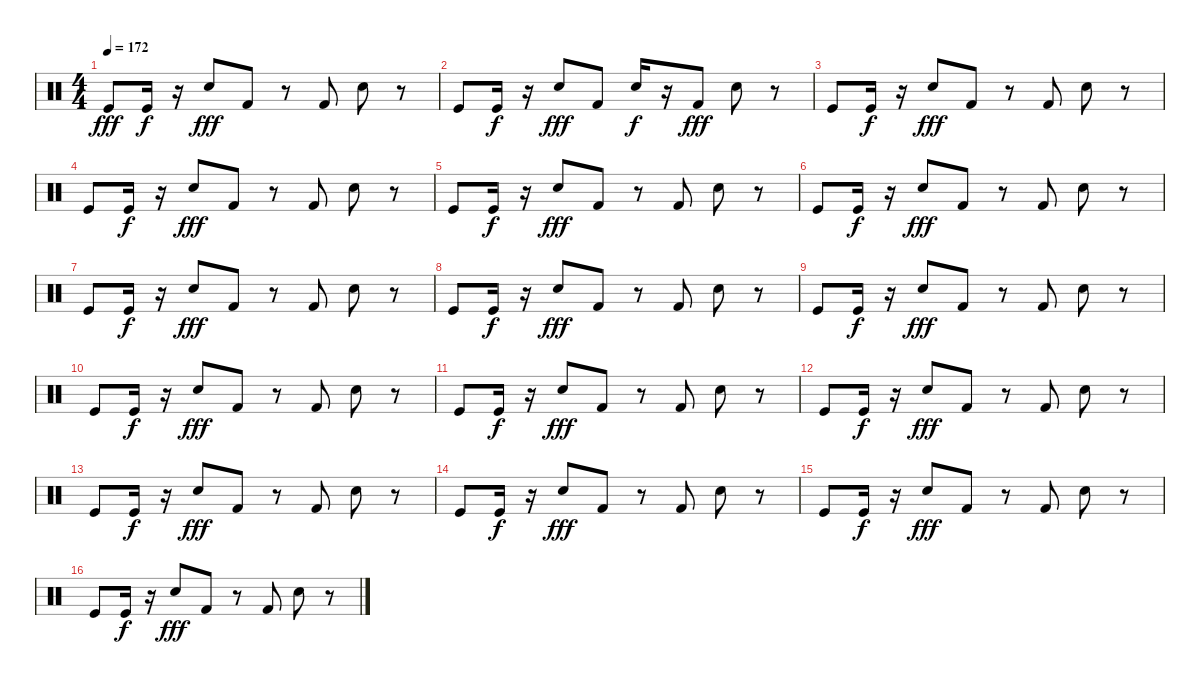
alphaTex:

\track "" {instrument percussion}
\staff {score}
\articulation defaults
\ts (4 4)
\tempo 172
\clef neutral
\ks c "Kick (hit)".8{dy fff} "Kick (hit)".16{dy f}
r.16 "Snare (hit) 2".8{dy fff} "Kick (hit) 2".8 r.8 "Kick (hit) 2".8 "Snare (hit) 2".8 r.8 |
"Kick (hit)".8 "Kick (hit)".16{dy f} r.16 "Snare (hit) 2".8{dy fff} "Kick (hit) 2".8 "Snare (hit) 2".16{dy f} r.16 "Kick (hit) 2".8{dy fff} "Snare (hit) 2".8 r.8 |
"Kick (hit)".8 "Kick (hit)".16{dy f} r.16 "Snare (hit) 2".8{dy fff} "Kick (hit) 2".8 r.8 "Kick (hit) 2".8 "Snare (hit) 2".8 r.8 |
"Kick (hit)".8 "Kick (hit)".16{dy f} r.16 "Snare (hit) 2".8{dy fff} "Kick (hit) 2".8 r.8 "Kick (hit) 2".8 "Snare (hit) 2".8 r.8 |
"Kick (hit)".8 "Kick (hit)".16{dy f} r.16 "Snare (hit) 2".8{dy fff} "Kick (hit) 2".8 r.8 "Kick (hit) 2".8 "Snare (hit) 2".8 r.8 |
"Kick (hit)".8 "Kick (hit)".16{dy f} r.16 "Snare (hit) 2".8{dy fff} "Kick (hit) 2".8 r.8 "Kick (hit) 2".8 "Snare (hit) 2".8 r.8 |
"Kick (hit)".8 "Kick (hit)".16{dy f} r.16 "Snare (hit) 2".8{dy fff} "Kick (hit) 2".8 r.8 "Kick (hit) 2".8 "Snare (hit) 2".8 r.8 |
"Kick (hit)".8 "Kick (hit)".16{dy f} r.16 "Snare (hit) 2".8{dy fff} "Kick (hit) 2".8 r.8 "Kick (hit) 2".8 "Snare (hit) 2".8 r.8 |
"Kick (hit)".8 "Kick (hit)".16{dy f} r.16 "Snare (hit) 2".8{dy fff} "Kick (hit) 2".8 r.8 "Kick (hit) 2".8 "Snare (hit) 2".8 r.8 |
"Kick (hit)".8 "Kick (hit)".16{dy f} r.16 "Snare (hit) 2".8{dy fff} "Kick (hit) 2".8 r.8 "Kick (hit) 2".8 "Snare (hit) 2".8 r.8 |
"Kick (hit)".8 "Kick (hit)".16{dy f} r.16 "Snare (hit) 2".8{dy fff} "Kick (hit) 2".8 r.8 "Kick (hit) 2".8 "Snare (hit) 2".8 r.8 |
"Kick (hit)".8 "Kick (hit)".16{dy f} r.16 "Snare (hit) 2".8{dy fff} "Kick (hit) 2".8 r.8 "Kick (hit) 2".8 "Snare (hit) 2".8 r.8 |
"Kick (hit)".8 "Kick (hit)".16{dy f} r.16 "Snare (hit) 2".8{dy fff} "Kick (hit) 2".8 r.8 "Kick (hit) 2".8 "Snare (hit) 2".8 r.8 |
"Kick (hit)".8 "Kick (hit)".16{dy f} r.16 "Snare (hit) 2".8{dy fff} "Kick (hit) 2".8 r.8 "Kick (hit) 2".8 "Snare (hit) 2".8 r.8 |
"Kick (hit)".8 "Kick (hit)".16{dy f} r.16 "Snare (hit) 2".8{dy fff} "Kick (hit) 2".8 r.8 "Kick (hit) 2".8 "Snare (hit) 2".8 r.8 |
"Kick (hit)".8 "Kick (hit)".16{dy f} r.16 "Snare (hit) 2".8{dy fff} "Kick (hit) 2".8 r.8 "Kick (hit) 2".8 "Snare (hit) 2".8 r.8
